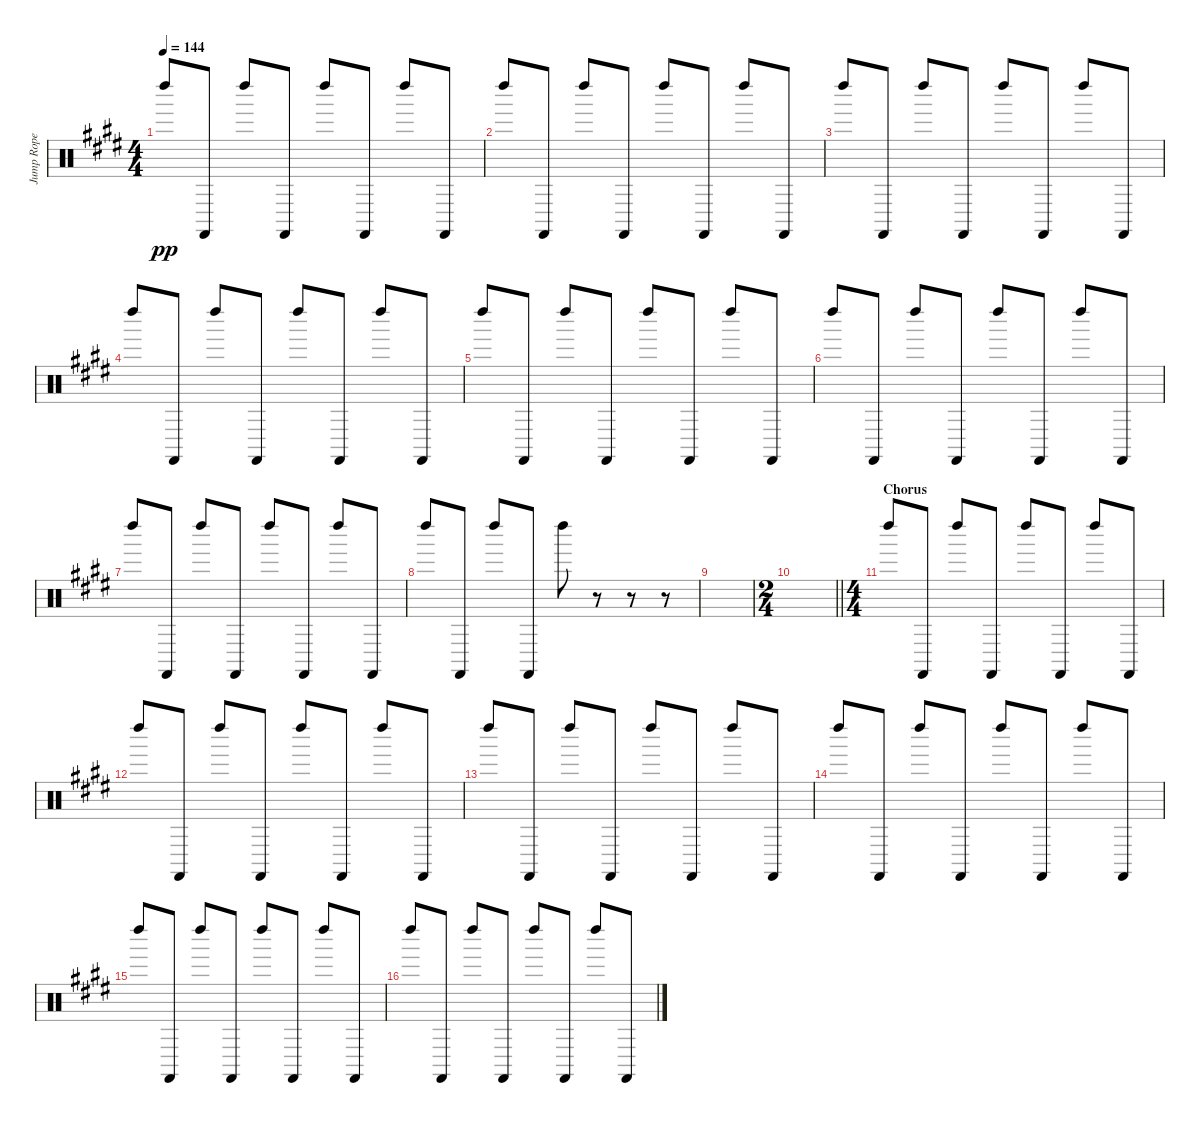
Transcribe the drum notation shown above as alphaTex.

\track ("Jump Rope" "Jump Rope") {instrument percussion}
\staff {score}
\articulation defaults
\ts (4 4)
\tempo 144
\clef neutral
\ks e "Left Maraca (hit)".8{dy pp} "Castanets (hit)".8 "Left Maraca (hit)".8 "Castanets (hit)".8 "Left Maraca (hit)".8 "Castanets (hit)".8 "Left Maraca (hit)".8 "Castanets (hit)".8
|
"Left Maraca (hit)".8 "Castanets (hit)".8 "Left Maraca (hit)".8 "Castanets (hit)".8 "Left Maraca (hit)".8 "Castanets (hit)".8 "Left Maraca (hit)".8 "Castanets (hit)".8 |
"Left Maraca (hit)".8 "Castanets (hit)".8 "Left Maraca (hit)".8 "Castanets (hit)".8 "Left Maraca (hit)".8 "Castanets (hit)".8 "Left Maraca (hit)".8 "Castanets (hit)".8 |
"Left Maraca (hit)".8 "Castanets (hit)".8 "Left Maraca (hit)".8 "Castanets (hit)".8 "Left Maraca (hit)".8 "Castanets (hit)".8 "Left Maraca (hit)".8 "Castanets (hit)".8 |
"Left Maraca (hit)".8 "Castanets (hit)".8 "Left Maraca (hit)".8 "Castanets (hit)".8 "Left Maraca (hit)".8 "Castanets (hit)".8 "Left Maraca (hit)".8 "Castanets (hit)".8 |
"Left Maraca (hit)".8 "Castanets (hit)".8 "Left Maraca (hit)".8 "Castanets (hit)".8 "Left Maraca (hit)".8 "Castanets (hit)".8 "Left Maraca (hit)".8 "Castanets (hit)".8 |
"Left Maraca (hit)".8 "Castanets (hit)".8 "Left Maraca (hit)".8 "Castanets (hit)".8 "Left Maraca (hit)".8 "Castanets (hit)".8 "Left Maraca (hit)".8 "Castanets (hit)".8 |
"Left Maraca (hit)".8 "Castanets (hit)".8 "Left Maraca (hit)".8 "Castanets (hit)".8 "Left Maraca (hit)".8 r.8 r.8 r.8 |
|
\ts (2 4)
\barLineRight lightlight
|
\ts (4 4)
\section ("" "Chorus")
"Left Maraca (hit)".8 "Castanets (hit)".8 "Left Maraca (hit)".8 "Castanets (hit)".8 "Left Maraca (hit)".8 "Castanets (hit)".8 "Left Maraca (hit)".8 "Castanets (hit)".8 |
"Left Maraca (hit)".8 "Castanets (hit)".8 "Left Maraca (hit)".8 "Castanets (hit)".8 "Left Maraca (hit)".8 "Castanets (hit)".8 "Left Maraca (hit)".8 "Castanets (hit)".8 |
"Left Maraca (hit)".8 "Castanets (hit)".8 "Left Maraca (hit)".8 "Castanets (hit)".8 "Left Maraca (hit)".8 "Castanets (hit)".8 "Left Maraca (hit)".8 "Castanets (hit)".8 |
"Left Maraca (hit)".8 "Castanets (hit)".8 "Left Maraca (hit)".8 "Castanets (hit)".8 "Left Maraca (hit)".8 "Castanets (hit)".8 "Left Maraca (hit)".8 "Castanets (hit)".8 |
"Left Maraca (hit)".8 "Castanets (hit)".8 "Left Maraca (hit)".8 "Castanets (hit)".8 "Left Maraca (hit)".8 "Castanets (hit)".8 "Left Maraca (hit)".8 "Castanets (hit)".8 |
"Left Maraca (hit)".8 "Castanets (hit)".8 "Left Maraca (hit)".8 "Castanets (hit)".8 "Left Maraca (hit)".8 "Castanets (hit)".8 "Left Maraca (hit)".8 "Castanets (hit)".8
